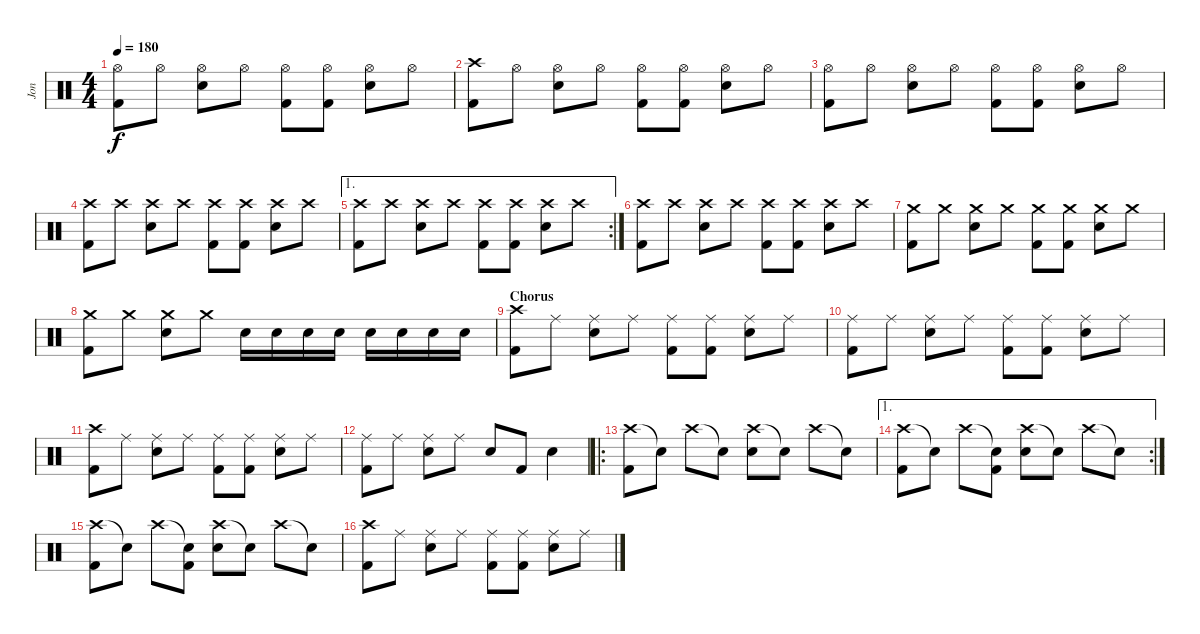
\track ("Jon" "Jon") {instrument percussion}
\staff {score}
\articulation defaults
\ts (4 4)
\tempo 180
\clef neutral
\ks c
("Hi-Hat (open)" "Kick (hit) 2").8{dy f} "Hi-Hat (open)".8 ("Hi-Hat (open)" "Snare (hit) 2").8 "Hi-Hat (open)".8 ("Hi-Hat (open)" "Kick (hit) 2").8 ("Hi-Hat (open)" "Kick (hit) 2").8 ("Hi-Hat (open)" "Snare (hit) 2").8 "Hi-Hat (open)".8 |
("Crash high (hit)" "Kick (hit) 2").8 "Hi-Hat (open)".8 ("Hi-Hat (open)" "Snare (hit) 2").8 "Hi-Hat (open)".8 ("Hi-Hat (open)" "Kick (hit) 2").8 ("Hi-Hat (open)" "Kick (hit) 2").8 ("Hi-Hat (open)" "Snare (hit) 2").8 "Hi-Hat (open)".8 |
("Hi-Hat (open)" "Kick (hit) 2").8 "Hi-Hat (open)".8 ("Hi-Hat (open)" "Snare (hit) 2").8 "Hi-Hat (open)".8 ("Hi-Hat (open)" "Kick (hit) 2").8 ("Hi-Hat (open)" "Kick (hit) 2").8 ("Hi-Hat (open)" "Snare (hit) 2").8 "Hi-Hat (open)".8 |
("Crash high (hit)" "Kick (hit) 2").8 "Crash high (hit)".8 ("Crash high (hit)" "Snare (hit) 2").8 "Crash high (hit)".8 ("Crash high (hit)" "Kick (hit) 2").8 ("Crash high (hit)" "Kick (hit) 2").8 ("Crash high (hit)" "Snare (hit) 2").8 "Crash high (hit)".8 |
\ae 1
\rc 2
("Crash high (hit)" "Kick (hit) 2").8 "Crash high (hit)".8 ("Crash high (hit)" "Snare (hit) 2").8 "Crash high (hit)".8 ("Crash high (hit)" "Kick (hit) 2").8 ("Crash high (hit)" "Kick (hit) 2").8 ("Crash high (hit)" "Snare (hit) 2").8 "Crash high (hit)".8 |
("Crash high (hit)" "Kick (hit) 2").8 "Crash high (hit)".8 ("Crash high (hit)" "Snare (hit) 2").8 "Crash high (hit)".8 ("Crash high (hit)" "Kick (hit) 2").8 ("Crash high (hit)" "Kick (hit) 2").8 ("Crash high (hit)" "Snare (hit) 2").8 "Crash high (hit)".8 |
("Crash medium (hit)" "Kick (hit) 2").8 "Crash medium (hit)".8 ("Crash medium (hit)" "Snare (hit) 2").8 "Crash medium (hit)".8 ("Crash medium (hit)" "Kick (hit) 2").8 ("Crash medium (hit)" "Kick (hit) 2").8 ("Crash medium (hit)" "Snare (hit) 2").8 "Crash medium (hit)".8 |
("Crash medium (hit)" "Kick (hit) 2").8 "Crash medium (hit)".8 ("Crash medium (hit)" "Snare (hit) 2").8 "Crash medium (hit)".8 "Snare (hit) 2".16 "Snare (hit) 2".16 "Snare (hit) 2".16 "Snare (hit) 2".16 "Snare (hit) 2".16 "Snare (hit) 2".16 "Snare (hit) 2".16 "Snare (hit) 2".16 |
\section ("" "Chorus")
("Crash high (hit)" "Kick (hit) 2").8 "Ride (middle)".8 ("Ride (middle)" "Snare (hit) 2").8 "Ride (middle)".8 ("Ride (middle)" "Kick (hit) 2").8 ("Ride (middle)" "Kick (hit) 2").8 ("Ride (middle)" "Snare (hit) 2").8 "Ride (middle)".8 |
("Ride (middle)" "Kick (hit) 2").8 "Ride (middle)".8 ("Ride (middle)" "Snare (hit) 2").8 "Ride (middle)".8 ("Ride (middle)" "Kick (hit) 2").8 ("Ride (middle)" "Kick (hit) 2").8 ("Ride (middle)" "Snare (hit) 2").8 "Ride (middle)".8 |
("Crash high (hit)" "Kick (hit) 2").8 "Ride (middle)".8 ("Ride (middle)" "Snare (hit) 2").8 "Ride (middle)".8 ("Ride (middle)" "Kick (hit) 2").8 ("Ride (middle)" "Kick (hit) 2").8 ("Ride (middle)" "Snare (hit) 2").8 "Ride (middle)".8 |
("Ride (middle)" "Kick (hit) 2").8 "Ride (middle)".8 ("Ride (middle)" "Snare (hit) 2").8 "Ride (middle)".8 "Snare (hit) 2".8 "Kick (hit) 2".8 "Snare (hit) 2".4 |
\ro
("Crash high (hit)" "Kick (hit) 2").8 "Snare (hit)"{t}.8 "Crash high (hit)".8 "Snare (hit)"{t}.8 ("Crash high (hit)" "Snare (hit) 2").8 "Snare (hit)"{t}.8 "Crash high (hit)".8 "Snare (hit)"{t}.8 |
\ae 1
\rc 2
("Crash high (hit)" "Kick (hit) 2").8 "Snare (hit)"{t}.8 "Crash high (hit)".8 ("Snare (hit)"{t} "Kick (hit) 2").8 ("Crash high (hit)" "Snare (hit) 2").8 "Snare (hit)"{t}.8 "Crash high (hit)".8 "Snare (hit)"{t}.8 |
("Crash high (hit)" "Kick (hit) 2").8 "Snare (hit)"{t}.8 "Crash high (hit)".8 ("Snare (hit)"{t} "Kick (hit) 2").8 ("Crash high (hit)" "Snare (hit) 2").8 "Snare (hit)"{t}.8 "Crash high (hit)".8 "Snare (hit)"{t}.8 |
("Crash high (hit)" "Kick (hit) 2").8 "Ride (middle)".8 ("Ride (middle)" "Snare (hit) 2").8 "Ride (middle)".8 ("Ride (middle)" "Kick (hit) 2").8 ("Ride (middle)" "Kick (hit) 2").8 ("Ride (middle)" "Snare (hit) 2").8 "Ride (middle)".8
